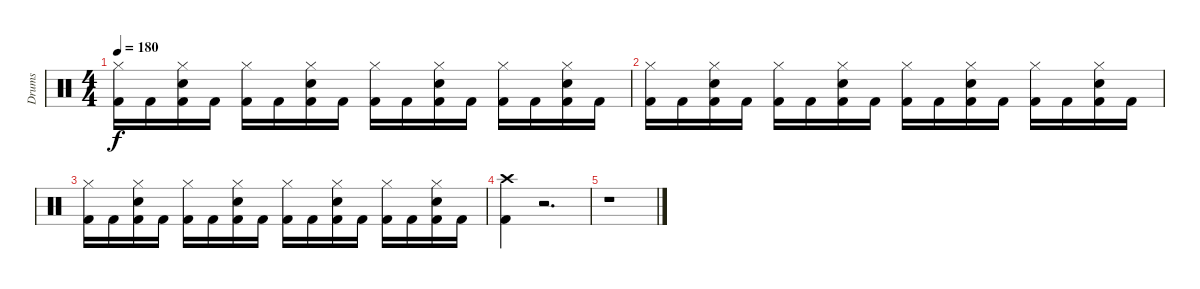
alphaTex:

\track ("Drums " "Drums ") {instrument percussion}
\staff {score}
\articulation defaults
\ts (4 4)
\tempo 180
\clef neutral
\ks c
("Kick (hit) 2" "Hi-Hat (closed)").16{dy f} "Kick (hit) 2".16 ("Kick (hit) 2" "Hi-Hat (closed)" "Electric Snare (hit)").16 "Kick (hit) 2".16 ("Kick (hit) 2" "Hi-Hat (closed)").16 "Kick (hit) 2".16 ("Kick (hit) 2" "Hi-Hat (closed)" "Electric Snare (hit)").16 "Kick (hit) 2".16 ("Kick (hit) 2" "Hi-Hat (closed)").16 "Kick (hit) 2".16 ("Kick (hit) 2" "Hi-Hat (closed)" "Electric Snare (hit)").16 "Kick (hit) 2".16 ("Kick (hit) 2" "Hi-Hat (closed)").16 "Kick (hit) 2".16 ("Kick (hit) 2" "Hi-Hat (closed)" "Electric Snare (hit)").16 "Kick (hit) 2".16 |
("Kick (hit) 2" "Hi-Hat (closed)").16 "Kick (hit) 2".16 ("Kick (hit) 2" "Hi-Hat (closed)" "Electric Snare (hit)").16 "Kick (hit) 2".16 ("Kick (hit) 2" "Hi-Hat (closed)").16 "Kick (hit) 2".16 ("Kick (hit) 2" "Hi-Hat (closed)" "Electric Snare (hit)").16 "Kick (hit) 2".16 ("Kick (hit) 2" "Hi-Hat (closed)").16 "Kick (hit) 2".16 ("Kick (hit) 2" "Hi-Hat (closed)" "Electric Snare (hit)").16 "Kick (hit) 2".16 ("Kick (hit) 2" "Hi-Hat (closed)").16 "Kick (hit) 2".16 ("Kick (hit) 2" "Hi-Hat (closed)" "Electric Snare (hit)").16 "Kick (hit) 2".16 |
("Kick (hit) 2" "Hi-Hat (closed)").16 "Kick (hit) 2".16 ("Kick (hit) 2" "Hi-Hat (closed)" "Electric Snare (hit)").16 "Kick (hit) 2".16 ("Kick (hit) 2" "Hi-Hat (closed)").16 "Kick (hit) 2".16 ("Kick (hit) 2" "Hi-Hat (closed)" "Electric Snare (hit)").16 "Kick (hit) 2".16 ("Kick (hit) 2" "Hi-Hat (closed)").16 "Kick (hit) 2".16 ("Kick (hit) 2" "Hi-Hat (closed)" "Electric Snare (hit)").16 "Kick (hit) 2".16 ("Kick (hit) 2" "Hi-Hat (closed)").16 "Kick (hit) 2".16 ("Kick (hit) 2" "Hi-Hat (closed)" "Electric Snare (hit)").16 "Kick (hit) 2".16 |
("Kick (hit) 2" "Crash high (hit)").4 r.2{d} |
r.1
